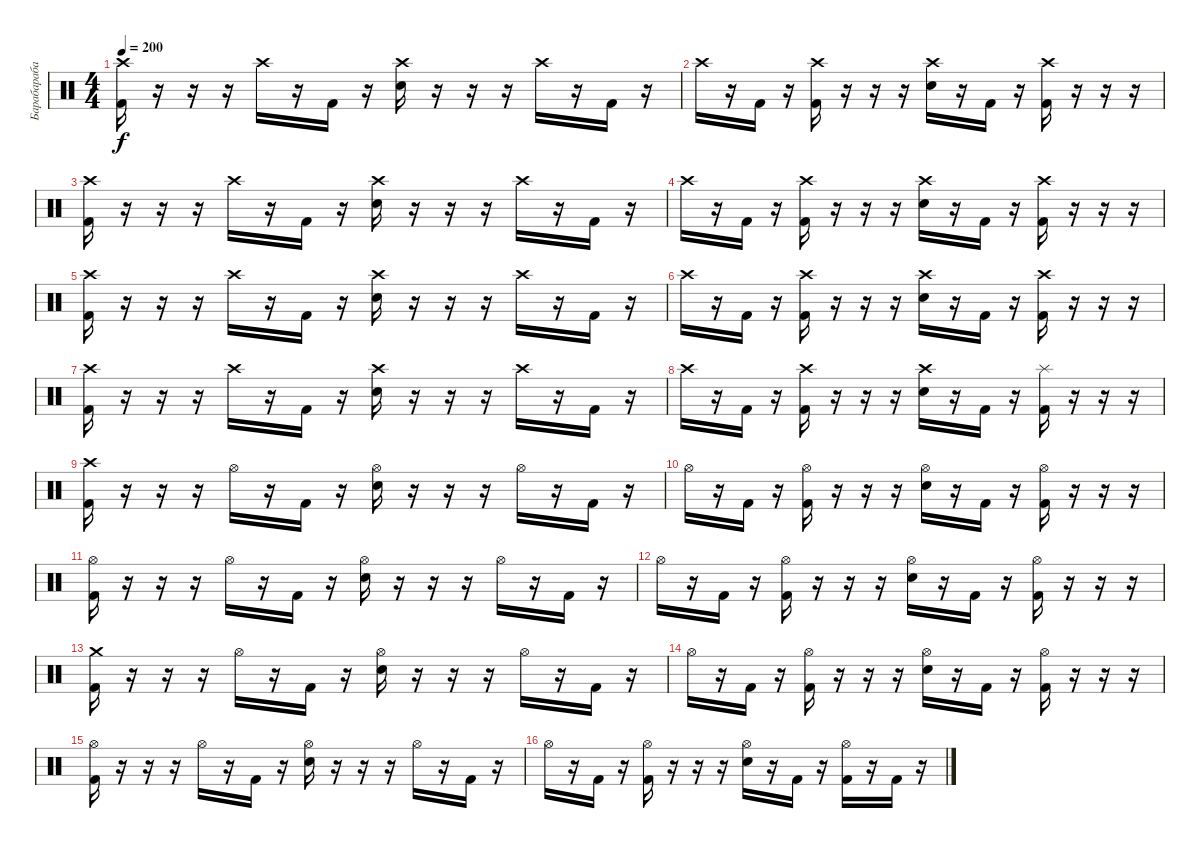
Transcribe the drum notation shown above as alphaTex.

\track ("Барабарабаны" "Барабараба") {instrument percussion}
\staff {score}
\articulation defaults
\ts (4 4)
\tempo 200
\clef neutral
\ks c
("Crash high (hit)" "Kick (hit) 2").16{dy f} r.16 r.16 r.16 "Crash high (hit)".16 r.16 "Kick (hit) 2".16 r.16 ("Crash high (hit)" "Electric Snare (hit)").16 r.16 r.16 r.16 "Crash high (hit)".16 r.16 "Kick (hit) 2".16 r.16 |
"Crash high (hit)".16 r.16 "Kick (hit) 2".16 r.16 ("Crash high (hit)" "Kick (hit) 2").16 r.16 r.16 r.16 ("Crash high (hit)" "Electric Snare (hit)").16 r.16 "Kick (hit) 2".16 r.16 ("Crash high (hit)" "Kick (hit) 2").16 r.16 r.16 r.16 |
("Crash high (hit)" "Kick (hit) 2").16 r.16 r.16 r.16 "Crash high (hit)".16 r.16 "Kick (hit) 2".16 r.16 ("Crash high (hit)" "Electric Snare (hit)").16 r.16 r.16 r.16 "Crash high (hit)".16 r.16 "Kick (hit) 2".16 r.16 |
"Crash high (hit)".16 r.16 "Kick (hit) 2".16 r.16 ("Crash high (hit)" "Kick (hit) 2").16 r.16 r.16 r.16 ("Crash high (hit)" "Electric Snare (hit)").16 r.16 "Kick (hit) 2".16 r.16 ("Crash high (hit)" "Kick (hit) 2").16 r.16 r.16 r.16 |
("Crash high (hit)" "Kick (hit) 2").16 r.16 r.16 r.16 "Crash high (hit)".16 r.16 "Kick (hit) 2".16 r.16 ("Crash high (hit)" "Electric Snare (hit)").16 r.16 r.16 r.16 "Crash high (hit)".16 r.16 "Kick (hit) 2".16 r.16 |
"Crash high (hit)".16 r.16 "Kick (hit) 2".16 r.16 ("Crash high (hit)" "Kick (hit) 2").16 r.16 r.16 r.16 ("Crash high (hit)" "Electric Snare (hit)").16 r.16 "Kick (hit) 2".16 r.16 ("Crash high (hit)" "Kick (hit) 2").16 r.16 r.16 r.16 |
("Crash high (hit)" "Kick (hit) 2").16 r.16 r.16 r.16 "Crash high (hit)".16 r.16 "Kick (hit) 2".16 r.16 ("Crash high (hit)" "Electric Snare (hit)").16 r.16 r.16 r.16 "Crash high (hit)".16 r.16 "Kick (hit) 2".16 r.16 |
"Crash high (hit)".16 r.16 "Kick (hit) 2".16 r.16 ("Crash high (hit)" "Kick (hit) 2").16 r.16 r.16 r.16 ("Crash high (hit)" "Electric Snare (hit)").16 r.16 "Kick (hit) 2".16 r.16 ("Splash (hit)" "Kick (hit) 2").16 r.16 r.16 r.16 |
("Kick (hit) 2" "Crash high (hit)").16 r.16 r.16 r.16 "Hi-Hat (open)".16 r.16 "Kick (hit) 2".16 r.16 ("Hi-Hat (open)" "Electric Snare (hit)").16 r.16 r.16 r.16 "Hi-Hat (open)".16 r.16 "Kick (hit) 2".16 r.16 |
"Hi-Hat (open)".16 r.16 "Kick (hit) 2".16 r.16 ("Hi-Hat (open)" "Kick (hit) 2").16 r.16 r.16 r.16 ("Hi-Hat (open)" "Electric Snare (hit)").16 r.16 "Kick (hit) 2".16 r.16 ("Hi-Hat (open)" "Kick (hit) 2").16 r.16 r.16 r.16 |
("Hi-Hat (open)" "Kick (hit) 2").16 r.16 r.16 r.16 "Hi-Hat (open)".16 r.16 "Kick (hit) 2".16 r.16 ("Hi-Hat (open)" "Electric Snare (hit)").16 r.16 r.16 r.16 "Hi-Hat (open)".16 r.16 "Kick (hit) 2".16 r.16 |
"Hi-Hat (open)".16 r.16 "Kick (hit) 2".16 r.16 ("Hi-Hat (open)" "Kick (hit) 2").16 r.16 r.16 r.16 ("Hi-Hat (open)" "Electric Snare (hit)").16 r.16 "Kick (hit) 2".16 r.16 ("Hi-Hat (open)" "Kick (hit) 2").16 r.16 r.16 r.16 |
("Crash medium (hit)" "Kick (hit) 2").16 r.16 r.16 r.16 "Hi-Hat (open)".16 r.16 "Kick (hit) 2".16 r.16 ("Hi-Hat (open)" "Electric Snare (hit)").16 r.16 r.16 r.16 "Hi-Hat (open)".16 r.16 "Kick (hit) 2".16 r.16 |
"Hi-Hat (open)".16 r.16 "Kick (hit) 2".16 r.16 ("Hi-Hat (open)" "Kick (hit) 2").16 r.16 r.16 r.16 ("Hi-Hat (open)" "Electric Snare (hit)").16 r.16 "Kick (hit) 2".16 r.16 ("Hi-Hat (open)" "Kick (hit) 2").16 r.16 r.16 r.16 |
("Hi-Hat (open)" "Kick (hit) 2").16 r.16 r.16 r.16 "Hi-Hat (open)".16 r.16 "Kick (hit) 2".16 r.16 ("Hi-Hat (open)" "Electric Snare (hit)").16 r.16 r.16 r.16 "Hi-Hat (open)".16 r.16 "Kick (hit) 2".16 r.16 |
"Hi-Hat (open)".16 r.16 "Kick (hit) 2".16 r.16 ("Hi-Hat (open)" "Kick (hit) 2").16 r.16 r.16 r.16 ("Hi-Hat (open)" "Electric Snare (hit)").16 r.16 "Kick (hit) 2".16 r.16 ("Hi-Hat (open)" "Kick (hit) 2").16 r.16 "Kick (hit) 2".16 r.16
